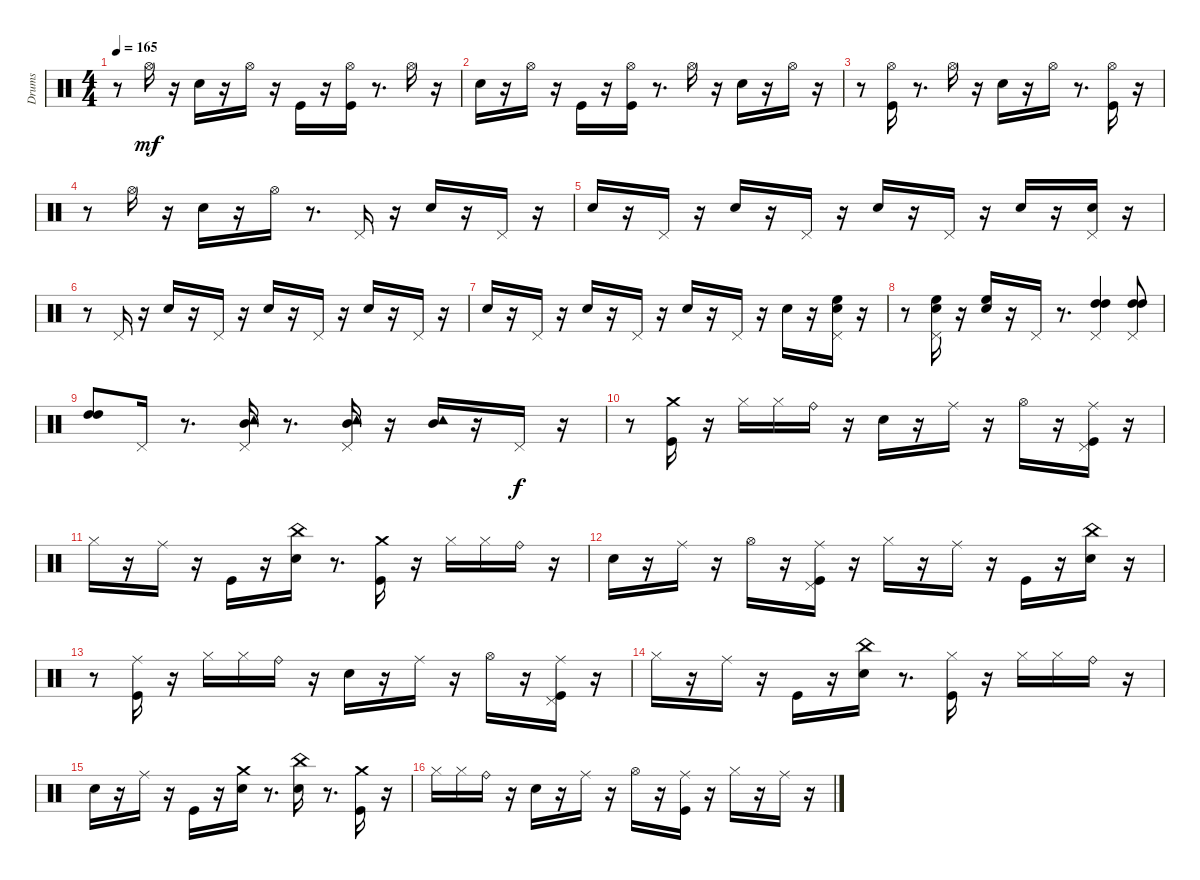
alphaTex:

\track ("Drums" "Drums") {instrument percussion}
\staff {score}
\articulation defaults
\ts (4 4)
\tempo 165
\clef neutral
\ks c
r.8{dy mf} "Hi-Hat (open)".16 r.16 "Electric Snare (hit)".16 r.16 "Hi-Hat (open)".16 r.16 "Kick (hit)".16 r.16 ("Hi-Hat (open)" "Kick (hit)").16 r.8{d} "Hi-Hat (open)".16 r.16 |
"Electric Snare (hit)".16 r.16 "Hi-Hat (open)".16 r.16 "Kick (hit)".16 r.16 ("Kick (hit)" "Hi-Hat (open)").16 r.8{d} "Hi-Hat (open)".16 r.16 "Electric Snare (hit)".16 r.16 "Hi-Hat (open)".16 r.16 |
r.8 ("Hi-Hat (open)" "Kick (hit)").16 r.8{d} "Hi-Hat (open)".16 r.16 "Electric Snare (hit)".16 r.16 "Hi-Hat (open)".16 r.8{d} ("Kick (hit)" "Hi-Hat (open)").16 r.16 |
r.8 "Hi-Hat (open)".16 r.16 "Electric Snare (hit)".16 r.16 "Hi-Hat (open)".16 r.8{d} "Pedal Hi-Hat (hit)".16 r.16 "Electric Snare (hit)".16 r.16 "Pedal Hi-Hat (hit)".16 r.16 |
"Electric Snare (hit)".16 r.16 "Pedal Hi-Hat (hit)".16 r.16 "Electric Snare (hit)".16 r.16 "Pedal Hi-Hat (hit)".16 r.16 "Electric Snare (hit)".16 r.16 "Pedal Hi-Hat (hit)".16 r.16 "Electric Snare (hit)".16 r.16 ("Pedal Hi-Hat (hit)" "Electric Snare (hit)").16 r.16 |
r.8 "Pedal Hi-Hat (hit)".16 r.16 "Electric Snare (hit)".16 r.16 "Pedal Hi-Hat (hit)".16 r.16 "Electric Snare (hit)".16 r.16 "Pedal Hi-Hat (hit)".16 r.16 "Electric Snare (hit)".16 r.16 "Pedal Hi-Hat (hit)".16 r.16 |
"Electric Snare (hit)".16 r.16 "Pedal Hi-Hat (hit)".16 r.16 "Electric Snare (hit)".16 r.16 "Pedal Hi-Hat (hit)".16 r.16 "Electric Snare (hit)".16 r.16 "Pedal Hi-Hat (hit)".16 r.16 "Electric Snare (hit)".16 r.16 ("High Floor Tom (hit)" "Pedal Hi-Hat (hit)" "Electric Snare (hit)").16 r.16 |
r.8 ("High Floor Tom (hit)" "Pedal Hi-Hat (hit)" "Electric Snare (hit)").16 r.16 ("High Floor Tom (hit)" "Electric Snare (hit)").16 r.16 "Pedal Hi-Hat (hit)".16 r.8{d} ("High Tom (hit)" "Pedal Hi-Hat (hit)" "High Tom (hit)").4 ("High Tom (hit)" "Pedal Hi-Hat (hit)" "High Tom (hit)").8 |
("High Tom (hit)" "High Tom (hit)").8 "Pedal Hi-Hat (hit)".16 r.8{d} ("Pedal Hi-Hat (hit)" "Tambourine (hit)" "Mid Tom (hit)").16 r.8{d} ("Pedal Hi-Hat (hit)" "Tambourine (hit)" "Mid Tom (hit)").16 r.16 ("Tambourine (hit)" "Mid Tom (hit)").16 r.16 "Pedal Hi-Hat (hit)".16{dy f} r.16 |
r.8 ("Kick (hit)" "Crash medium (hit)").16 r.16 "Hi-Hat (closed)".16 "Hi-Hat (closed)".16 "Ride (bell)".16 r.16 "Electric Snare (hit)".16 r.16 "Ride (middle)".16 r.16 "Hi-Hat (open)".16 r.16 ("Ride (middle)" "Pedal Hi-Hat (hit)" "Kick (hit)").16 r.16 |
"Hi-Hat (closed)".16 r.16 "Ride (middle)".16 r.16 "Kick (hit)".16 r.16 ("Electric Snare (hit)" "China (hit)").16 r.8{d} ("Kick (hit)" "Crash medium (hit)").16 r.16 "Hi-Hat (closed)".16 "Hi-Hat (closed)".16 "Ride (bell)".16 r.16 |
"Electric Snare (hit)".16 r.16 "Ride (middle)".16 r.16 "Hi-Hat (open)".16 r.16 ("Pedal Hi-Hat (hit)" "Kick (hit)" "Ride (middle)").16 r.16 "Hi-Hat (closed)".16 r.16 "Ride (middle)".16 r.16 "Kick (hit)".16 r.16 ("China (hit)" "Electric Snare (hit)").16 r.16 |
r.8 ("Kick (hit)" "Ride (middle)").16 r.16 "Hi-Hat (closed)".16 "Hi-Hat (closed)".16 "Ride (bell)".16 r.16 "Electric Snare (hit)".16 r.16 "Ride (middle)".16 r.16 "Hi-Hat (open)".16 r.16 ("Pedal Hi-Hat (hit)" "Kick (hit)" "Ride (middle)").16 r.16 |
"Hi-Hat (closed)".16 r.16 "Ride (middle)".16 r.16 "Kick (hit)".16 r.16 ("China (hit)" "Electric Snare (hit)").16 r.8{d} ("Kick (hit)" "Hi-Hat (closed)").16 r.16 "Hi-Hat (closed)".16 "Hi-Hat (closed)".16 "Ride (bell)".16 r.16 |
"Electric Snare (hit)".16 r.16 "Ride (middle)".16 r.16 "Kick (hit)".16 r.16 ("Crash medium (hit)" "Electric Snare (hit)").16 r.8{d} ("China (hit)" "Electric Snare (hit)").16 r.8{d} ("Kick (hit)" "Crash medium (hit)").16 r.16 |
"Hi-Hat (closed)".16 "Hi-Hat (closed)".16 "Ride (bell)".16 r.16 "Electric Snare (hit)".16 r.16 "Ride (middle)".16 r.16 "Hi-Hat (open)".16 r.16 ("Kick (hit)" "Ride (middle)").16 r.16 "Hi-Hat (closed)".16 r.16 "Ride (middle)".16 r.16
